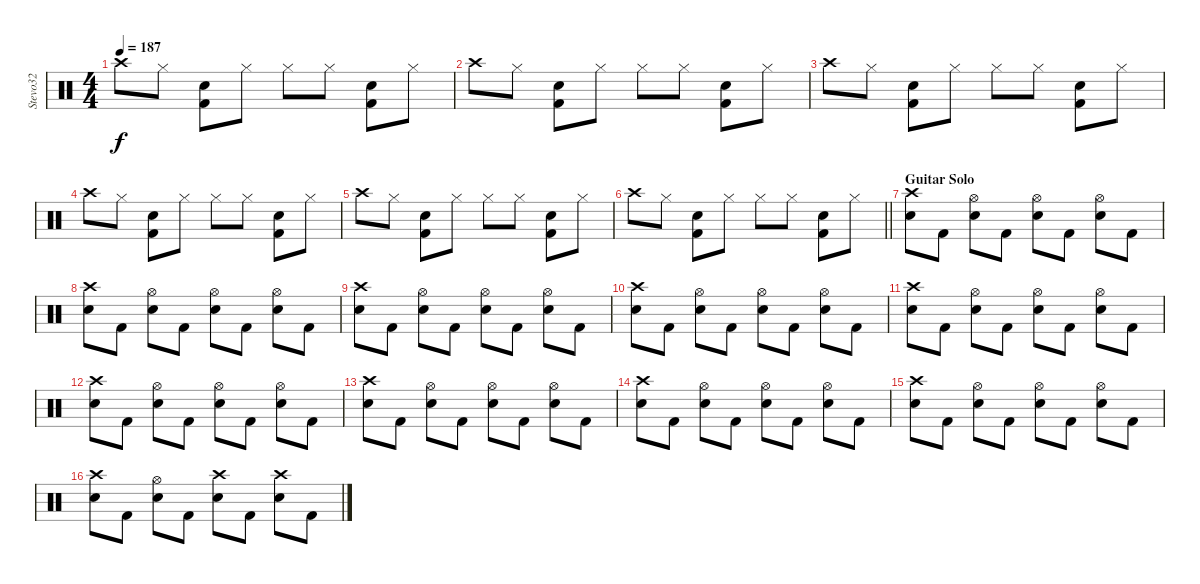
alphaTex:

\track ("Stevo32" "Stevo32") {instrument percussion}
\staff {score}
\articulation defaults
\ts (4 4)
\tempo 187
\clef neutral
\ks c "Crash high (hit)".8{dy f} "Hi-Hat (closed)".8
("Kick (hit) 2" "Snare (hit) 2").8 "Hi-Hat (closed)".8 "Hi-Hat (closed)".8 "Hi-Hat (closed)".8 ("Kick (hit) 2" "Snare (hit) 2").8 "Hi-Hat (closed)".8 |
"Crash high (hit)".8 "Hi-Hat (closed)".8 ("Kick (hit) 2" "Snare (hit) 2").8 "Hi-Hat (closed)".8 "Hi-Hat (closed)".8 "Hi-Hat (closed)".8 ("Kick (hit) 2" "Snare (hit) 2").8 "Hi-Hat (closed)".8 |
"Crash high (hit)".8 "Hi-Hat (closed)".8 ("Kick (hit) 2" "Snare (hit) 2").8 "Hi-Hat (closed)".8 "Hi-Hat (closed)".8 "Hi-Hat (closed)".8 ("Kick (hit) 2" "Snare (hit) 2").8 "Hi-Hat (closed)".8 |
"Crash high (hit)".8 "Hi-Hat (closed)".8 ("Kick (hit) 2" "Snare (hit) 2").8 "Hi-Hat (closed)".8 "Hi-Hat (closed)".8 "Hi-Hat (closed)".8 ("Kick (hit) 2" "Snare (hit) 2").8 "Hi-Hat (closed)".8 |
"Crash high (hit)".8 "Hi-Hat (closed)".8 ("Kick (hit) 2" "Snare (hit) 2").8 "Hi-Hat (closed)".8 "Hi-Hat (closed)".8 "Hi-Hat (closed)".8 ("Kick (hit) 2" "Snare (hit) 2").8 "Hi-Hat (closed)".8 |
\barLineRight lightlight "Crash high (hit)".8 "Hi-Hat (closed)".8
("Kick (hit) 2" "Snare (hit) 2").8 "Hi-Hat (closed)".8 "Hi-Hat (closed)".8 "Hi-Hat (closed)".8 ("Kick (hit) 2" "Snare (hit) 2").8 "Hi-Hat (closed)".8 |
\section ("" "Guitar Solo")
("Crash high (hit)" "Snare (hit) 2").8 "Kick (hit) 2".8 ("Snare (hit) 2" "Hi-Hat (open)").8 "Kick (hit) 2".8 ("Snare (hit) 2" "Hi-Hat (open)").8 "Kick (hit) 2".8 ("Snare (hit) 2" "Hi-Hat (open)").8 "Kick (hit) 2".8 |
("Crash high (hit)" "Snare (hit) 2").8 "Kick (hit) 2".8 ("Snare (hit) 2" "Hi-Hat (open)").8 "Kick (hit) 2".8 ("Snare (hit) 2" "Hi-Hat (open)").8 "Kick (hit) 2".8 ("Snare (hit) 2" "Hi-Hat (open)").8 "Kick (hit) 2".8 |
("Crash high (hit)" "Snare (hit) 2").8 "Kick (hit) 2".8 ("Snare (hit) 2" "Hi-Hat (open)").8 "Kick (hit) 2".8 ("Snare (hit) 2" "Hi-Hat (open)").8 "Kick (hit) 2".8 ("Snare (hit) 2" "Hi-Hat (open)").8 "Kick (hit) 2".8 |
("Crash high (hit)" "Snare (hit) 2").8 "Kick (hit) 2".8 ("Snare (hit) 2" "Hi-Hat (open)").8 "Kick (hit) 2".8 ("Snare (hit) 2" "Hi-Hat (open)").8 "Kick (hit) 2".8 ("Snare (hit) 2" "Hi-Hat (open)").8 "Kick (hit) 2".8 |
("Crash high (hit)" "Snare (hit) 2").8 "Kick (hit) 2".8 ("Snare (hit) 2" "Hi-Hat (open)").8 "Kick (hit) 2".8 ("Snare (hit) 2" "Hi-Hat (open)").8 "Kick (hit) 2".8 ("Snare (hit) 2" "Hi-Hat (open)").8 "Kick (hit) 2".8 |
("Crash high (hit)" "Snare (hit) 2").8 "Kick (hit) 2".8 ("Snare (hit) 2" "Hi-Hat (open)").8 "Kick (hit) 2".8 ("Snare (hit) 2" "Hi-Hat (open)").8 "Kick (hit) 2".8 ("Snare (hit) 2" "Hi-Hat (open)").8 "Kick (hit) 2".8 |
("Crash high (hit)" "Snare (hit) 2").8 "Kick (hit) 2".8 ("Snare (hit) 2" "Hi-Hat (open)").8 "Kick (hit) 2".8 ("Snare (hit) 2" "Hi-Hat (open)").8 "Kick (hit) 2".8 ("Snare (hit) 2" "Hi-Hat (open)").8 "Kick (hit) 2".8 |
("Crash high (hit)" "Snare (hit) 2").8 "Kick (hit) 2".8 ("Snare (hit) 2" "Hi-Hat (open)").8 "Kick (hit) 2".8 ("Snare (hit) 2" "Hi-Hat (open)").8 "Kick (hit) 2".8 ("Snare (hit) 2" "Hi-Hat (open)").8 "Kick (hit) 2".8 |
("Crash high (hit)" "Snare (hit) 2").8 "Kick (hit) 2".8 ("Snare (hit) 2" "Hi-Hat (open)").8 "Kick (hit) 2".8 ("Snare (hit) 2" "Hi-Hat (open)").8 "Kick (hit) 2".8 ("Snare (hit) 2" "Hi-Hat (open)").8 "Kick (hit) 2".8 |
("Crash high (hit)" "Snare (hit) 2").8 "Kick (hit) 2".8 ("Snare (hit) 2" "Hi-Hat (open)").8 "Kick (hit) 2".8 ("Crash high (hit)" "Snare (hit) 2").8 "Kick (hit) 2".8 ("Crash high (hit)" "Snare (hit) 2").8 "Kick (hit) 2".8
